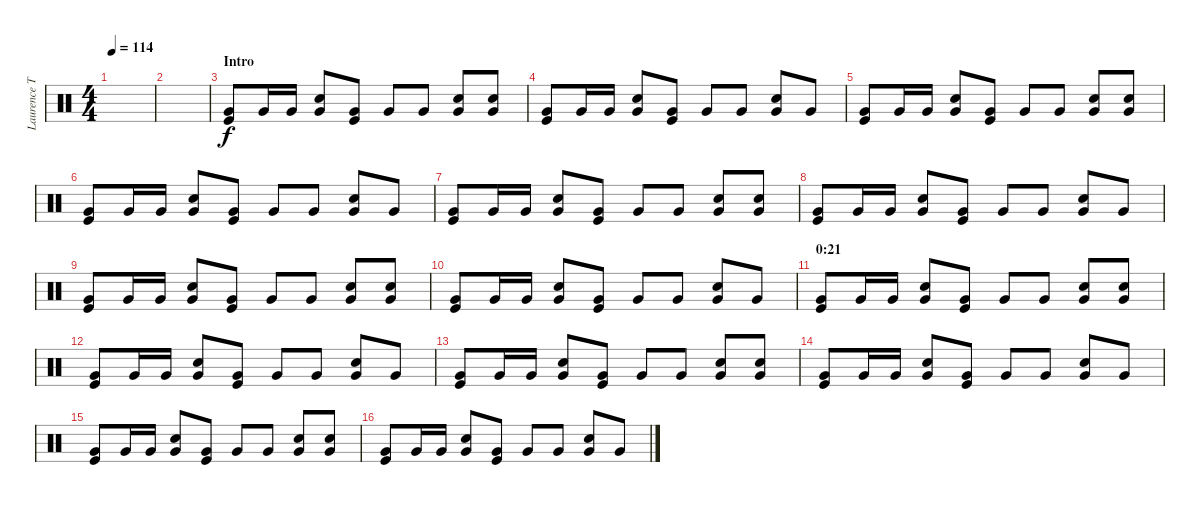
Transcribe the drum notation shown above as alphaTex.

\track ("Laurence Tolhurst (drums)" "Laurence T") {instrument percussion}
\staff {score}
\articulation defaults
\ts (4 4)
\tempo 114
\clef neutral
\ks c
|
|
\section ("" "Intro")
("Very Low Tom (hit)" "Kick (hit)").8 "Very Low Tom (hit)".16 "Very Low Tom (hit)".16 ("Very Low Tom (hit)" "Snare (hit) 2").8 ("Very Low Tom (hit)" "Kick (hit)").8 "Very Low Tom (hit)".8 "Very Low Tom (hit)".8 ("Very Low Tom (hit)" "Snare (hit) 2").8 ("Very Low Tom (hit)" "Snare (hit) 2").8 |
("Very Low Tom (hit)" "Kick (hit)").8 "Very Low Tom (hit)".16 "Very Low Tom (hit)".16 ("Very Low Tom (hit)" "Snare (hit) 2").8 ("Very Low Tom (hit)" "Kick (hit)").8 "Very Low Tom (hit)".8 "Very Low Tom (hit)".8 ("Very Low Tom (hit)" "Snare (hit) 2").8 "Very Low Tom (hit)".8 |
("Very Low Tom (hit)" "Kick (hit)").8 "Very Low Tom (hit)".16 "Very Low Tom (hit)".16 ("Very Low Tom (hit)" "Snare (hit) 2").8 ("Very Low Tom (hit)" "Kick (hit)").8 "Very Low Tom (hit)".8 "Very Low Tom (hit)".8 ("Very Low Tom (hit)" "Snare (hit) 2").8 ("Very Low Tom (hit)" "Snare (hit) 2").8 |
("Very Low Tom (hit)" "Kick (hit)").8 "Very Low Tom (hit)".16 "Very Low Tom (hit)".16 ("Very Low Tom (hit)" "Snare (hit) 2").8 ("Very Low Tom (hit)" "Kick (hit)").8 "Very Low Tom (hit)".8 "Very Low Tom (hit)".8 ("Very Low Tom (hit)" "Snare (hit) 2").8 "Very Low Tom (hit)".8 |
("Very Low Tom (hit)" "Kick (hit)").8 "Very Low Tom (hit)".16 "Very Low Tom (hit)".16 ("Very Low Tom (hit)" "Snare (hit) 2").8 ("Very Low Tom (hit)" "Kick (hit)").8 "Very Low Tom (hit)".8 "Very Low Tom (hit)".8 ("Very Low Tom (hit)" "Snare (hit) 2").8 ("Very Low Tom (hit)" "Snare (hit) 2").8 |
("Very Low Tom (hit)" "Kick (hit)").8 "Very Low Tom (hit)".16 "Very Low Tom (hit)".16 ("Very Low Tom (hit)" "Snare (hit) 2").8 ("Very Low Tom (hit)" "Kick (hit)").8 "Very Low Tom (hit)".8 "Very Low Tom (hit)".8 ("Very Low Tom (hit)" "Snare (hit) 2").8 "Very Low Tom (hit)".8 |
("Very Low Tom (hit)" "Kick (hit)").8 "Very Low Tom (hit)".16 "Very Low Tom (hit)".16 ("Very Low Tom (hit)" "Snare (hit) 2").8 ("Very Low Tom (hit)" "Kick (hit)").8 "Very Low Tom (hit)".8 "Very Low Tom (hit)".8 ("Very Low Tom (hit)" "Snare (hit) 2").8 ("Very Low Tom (hit)" "Snare (hit) 2").8 |
("Very Low Tom (hit)" "Kick (hit)").8 "Very Low Tom (hit)".16 "Very Low Tom (hit)".16 ("Very Low Tom (hit)" "Snare (hit) 2").8 ("Very Low Tom (hit)" "Kick (hit)").8 "Very Low Tom (hit)".8 "Very Low Tom (hit)".8 ("Very Low Tom (hit)" "Snare (hit) 2").8 "Very Low Tom (hit)".8 |
\section ("" "0:21")
("Very Low Tom (hit)" "Kick (hit)").8 "Very Low Tom (hit)".16 "Very Low Tom (hit)".16 ("Very Low Tom (hit)" "Snare (hit) 2").8 ("Very Low Tom (hit)" "Kick (hit)").8 "Very Low Tom (hit)".8 "Very Low Tom (hit)".8 ("Very Low Tom (hit)" "Snare (hit) 2").8 ("Very Low Tom (hit)" "Snare (hit) 2").8 |
("Very Low Tom (hit)" "Kick (hit)").8 "Very Low Tom (hit)".16 "Very Low Tom (hit)".16 ("Very Low Tom (hit)" "Snare (hit) 2").8 ("Very Low Tom (hit)" "Kick (hit)").8 "Very Low Tom (hit)".8 "Very Low Tom (hit)".8 ("Very Low Tom (hit)" "Snare (hit) 2").8 "Very Low Tom (hit)".8 |
("Very Low Tom (hit)" "Kick (hit)").8 "Very Low Tom (hit)".16 "Very Low Tom (hit)".16 ("Very Low Tom (hit)" "Snare (hit) 2").8 ("Very Low Tom (hit)" "Kick (hit)").8 "Very Low Tom (hit)".8 "Very Low Tom (hit)".8 ("Very Low Tom (hit)" "Snare (hit) 2").8 ("Very Low Tom (hit)" "Snare (hit) 2").8 |
("Very Low Tom (hit)" "Kick (hit)").8 "Very Low Tom (hit)".16 "Very Low Tom (hit)".16 ("Very Low Tom (hit)" "Snare (hit) 2").8 ("Very Low Tom (hit)" "Kick (hit)").8 "Very Low Tom (hit)".8 "Very Low Tom (hit)".8 ("Very Low Tom (hit)" "Snare (hit) 2").8 "Very Low Tom (hit)".8 |
("Very Low Tom (hit)" "Kick (hit)").8 "Very Low Tom (hit)".16 "Very Low Tom (hit)".16 ("Very Low Tom (hit)" "Snare (hit) 2").8 ("Very Low Tom (hit)" "Kick (hit)").8 "Very Low Tom (hit)".8 "Very Low Tom (hit)".8 ("Very Low Tom (hit)" "Snare (hit) 2").8 ("Very Low Tom (hit)" "Snare (hit) 2").8 |
("Very Low Tom (hit)" "Kick (hit)").8 "Very Low Tom (hit)".16 "Very Low Tom (hit)".16 ("Very Low Tom (hit)" "Snare (hit) 2").8 ("Very Low Tom (hit)" "Kick (hit)").8 "Very Low Tom (hit)".8 "Very Low Tom (hit)".8 ("Very Low Tom (hit)" "Snare (hit) 2").8 "Very Low Tom (hit)".8
